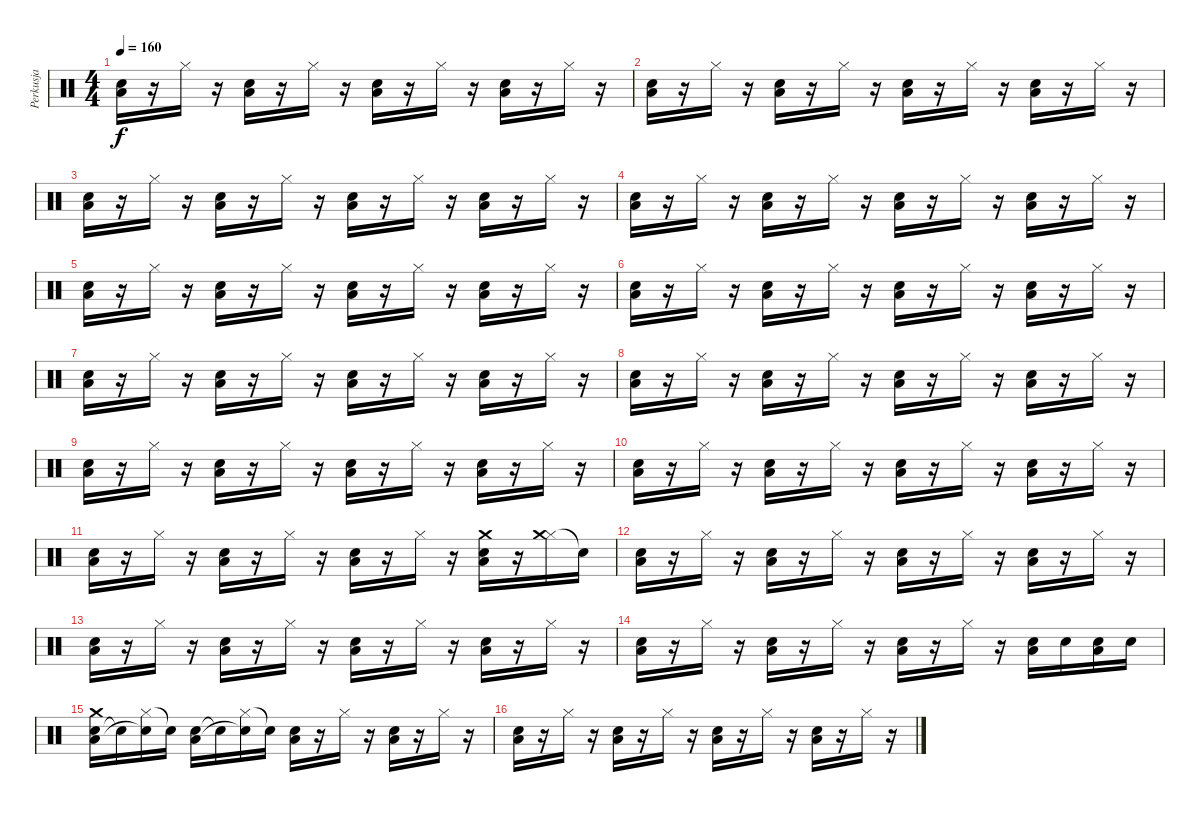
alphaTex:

\track ("Perkusja" "Perkusja") {instrument percussion}
\staff {score}
\articulation defaults
\ts (4 4)
\tempo 160
\clef neutral
\ks c
("Snare (hit) 2" "Low Tom (hit)").16{dy f} r.16 "Hi-Hat (closed)".16 r.16 ("Snare (hit) 2" "Low Tom (hit)").16 r.16 "Hi-Hat (closed)".16 r.16 ("Snare (hit) 2" "Low Tom (hit)").16 r.16 "Hi-Hat (closed)".16 r.16 ("Snare (hit) 2" "Low Tom (hit)").16 r.16 "Hi-Hat (closed)".16 r.16 |
("Snare (hit) 2" "Low Tom (hit)").16 r.16 "Hi-Hat (closed)".16 r.16 ("Snare (hit) 2" "Low Tom (hit)").16 r.16 "Hi-Hat (closed)".16 r.16 ("Snare (hit) 2" "Low Tom (hit)").16 r.16 "Hi-Hat (closed)".16 r.16 ("Snare (hit) 2" "Low Tom (hit)").16 r.16 "Hi-Hat (closed)".16 r.16 |
("Snare (hit) 2" "Low Tom (hit)").16 r.16 "Hi-Hat (closed)".16 r.16 ("Snare (hit) 2" "Low Tom (hit)").16 r.16 "Hi-Hat (closed)".16 r.16 ("Snare (hit) 2" "Low Tom (hit)").16 r.16 "Hi-Hat (closed)".16 r.16 ("Snare (hit) 2" "Low Tom (hit)").16 r.16 "Hi-Hat (closed)".16 r.16 |
("Snare (hit) 2" "Low Tom (hit)").16 r.16 "Hi-Hat (closed)".16 r.16 ("Snare (hit) 2" "Low Tom (hit)").16 r.16 "Hi-Hat (closed)".16 r.16 ("Snare (hit) 2" "Low Tom (hit)").16 r.16 "Hi-Hat (closed)".16 r.16 ("Snare (hit) 2" "Low Tom (hit)").16 r.16 "Hi-Hat (closed)".16 r.16 |
("Snare (hit) 2" "Low Tom (hit)").16 r.16 "Hi-Hat (closed)".16 r.16 ("Snare (hit) 2" "Low Tom (hit)").16 r.16 "Hi-Hat (closed)".16 r.16 ("Snare (hit) 2" "Low Tom (hit)").16 r.16 "Hi-Hat (closed)".16 r.16 ("Snare (hit) 2" "Low Tom (hit)").16 r.16 "Hi-Hat (closed)".16 r.16 |
("Snare (hit) 2" "Low Tom (hit)").16 r.16 "Hi-Hat (closed)".16 r.16 ("Snare (hit) 2" "Low Tom (hit)").16 r.16 "Hi-Hat (closed)".16 r.16 ("Snare (hit) 2" "Low Tom (hit)").16 r.16 "Hi-Hat (closed)".16 r.16 ("Snare (hit) 2" "Low Tom (hit)").16 r.16 "Hi-Hat (closed)".16 r.16 |
("Snare (hit) 2" "Low Tom (hit)").16 r.16 "Hi-Hat (closed)".16 r.16 ("Snare (hit) 2" "Low Tom (hit)").16 r.16 "Hi-Hat (closed)".16 r.16 ("Snare (hit) 2" "Low Tom (hit)").16 r.16 "Hi-Hat (closed)".16 r.16 ("Snare (hit) 2" "Low Tom (hit)").16 r.16 "Hi-Hat (closed)".16 r.16 |
("Snare (hit) 2" "Low Tom (hit)").16 r.16 "Hi-Hat (closed)".16 r.16 ("Snare (hit) 2" "Low Tom (hit)").16 r.16 "Hi-Hat (closed)".16 r.16 ("Snare (hit) 2" "Low Tom (hit)").16 r.16 "Hi-Hat (closed)".16 r.16 ("Snare (hit) 2" "Low Tom (hit)").16 r.16 "Hi-Hat (closed)".16 r.16 |
("Snare (hit) 2" "Low Tom (hit)").16 r.16 "Hi-Hat (closed)".16 r.16 ("Snare (hit) 2" "Low Tom (hit)").16 r.16 "Hi-Hat (closed)".16 r.16 ("Snare (hit) 2" "Low Tom (hit)").16 r.16 "Hi-Hat (closed)".16 r.16 ("Snare (hit) 2" "Low Tom (hit)").16 r.16 "Hi-Hat (closed)".16 r.16 |
("Snare (hit) 2" "Low Tom (hit)").16 r.16 "Hi-Hat (closed)".16 r.16 ("Snare (hit) 2" "Low Tom (hit)").16 r.16 "Hi-Hat (closed)".16 r.16 ("Snare (hit) 2" "Low Tom (hit)").16 r.16 "Hi-Hat (closed)".16 r.16 ("Snare (hit) 2" "Low Tom (hit)").16 r.16 "Hi-Hat (closed)".16 r.16 |
("Snare (hit) 2" "Low Tom (hit)").16 r.16 "Hi-Hat (closed)".16 r.16 ("Snare (hit) 2" "Low Tom (hit)").16 r.16 "Hi-Hat (closed)".16 r.16 ("Snare (hit) 2" "Low Tom (hit)").16 r.16 "Hi-Hat (closed)".16 r.16 ("Snare (hit) 2" "Low Tom (hit)" "Crash medium (hit)").16 r.16 ("Hi-Hat (closed)" "Crash medium (hit)").16 "Snare (hit)"{t}.16 |
("Snare (hit) 2" "Low Tom (hit)").16 r.16 "Hi-Hat (closed)".16 r.16 ("Snare (hit) 2" "Low Tom (hit)").16 r.16 "Hi-Hat (closed)".16 r.16 ("Snare (hit) 2" "Low Tom (hit)").16 r.16 "Hi-Hat (closed)".16 r.16 ("Snare (hit) 2" "Low Tom (hit)").16 r.16 "Hi-Hat (closed)".16 r.16 |
("Snare (hit) 2" "Low Tom (hit)").16 r.16 "Hi-Hat (closed)".16 r.16 ("Snare (hit) 2" "Low Tom (hit)").16 r.16 "Hi-Hat (closed)".16 r.16 ("Snare (hit) 2" "Low Tom (hit)").16 r.16 "Hi-Hat (closed)".16 r.16 ("Snare (hit) 2" "Low Tom (hit)").16 r.16 "Hi-Hat (closed)".16 r.16 |
("Snare (hit) 2" "Low Tom (hit)").16 r.16 "Hi-Hat (closed)".16 r.16 ("Snare (hit) 2" "Low Tom (hit)").16 r.16 "Hi-Hat (closed)".16 r.16 ("Snare (hit) 2" "Low Tom (hit)").16 r.16 "Hi-Hat (closed)".16 r.16 ("Snare (hit) 2" "Low Tom (hit)").16 "Snare (hit) 2".16 ("Snare (hit) 2" "Low Tom (hit)").16 "Snare (hit) 2".16 |
("Snare (hit) 2" "Low Tom (hit)" "Crash medium (hit)").16 "Snare (hit)"{t}.16 ("Hi-Hat (closed)" "Snare (hit)"{t}).16 "Snare (hit)"{t}.16 ("Snare (hit) 2" "Low Tom (hit)").16 "Snare (hit)"{t}.16 ("Hi-Hat (closed)" "Snare (hit)"{t}).16 "Snare (hit)"{t}.16 ("Snare (hit) 2" "Low Tom (hit)").16 r.16 "Hi-Hat (closed)".16 r.16 ("Snare (hit) 2" "Low Tom (hit)").16 r.16 "Hi-Hat (closed)".16 r.16 |
("Snare (hit) 2" "Low Tom (hit)").16 r.16 "Hi-Hat (closed)".16 r.16 ("Snare (hit) 2" "Low Tom (hit)").16 r.16 "Hi-Hat (closed)".16 r.16 ("Snare (hit) 2" "Low Tom (hit)").16 r.16 "Hi-Hat (closed)".16 r.16 ("Snare (hit) 2" "Low Tom (hit)").16 r.16 "Hi-Hat (closed)".16 r.16
